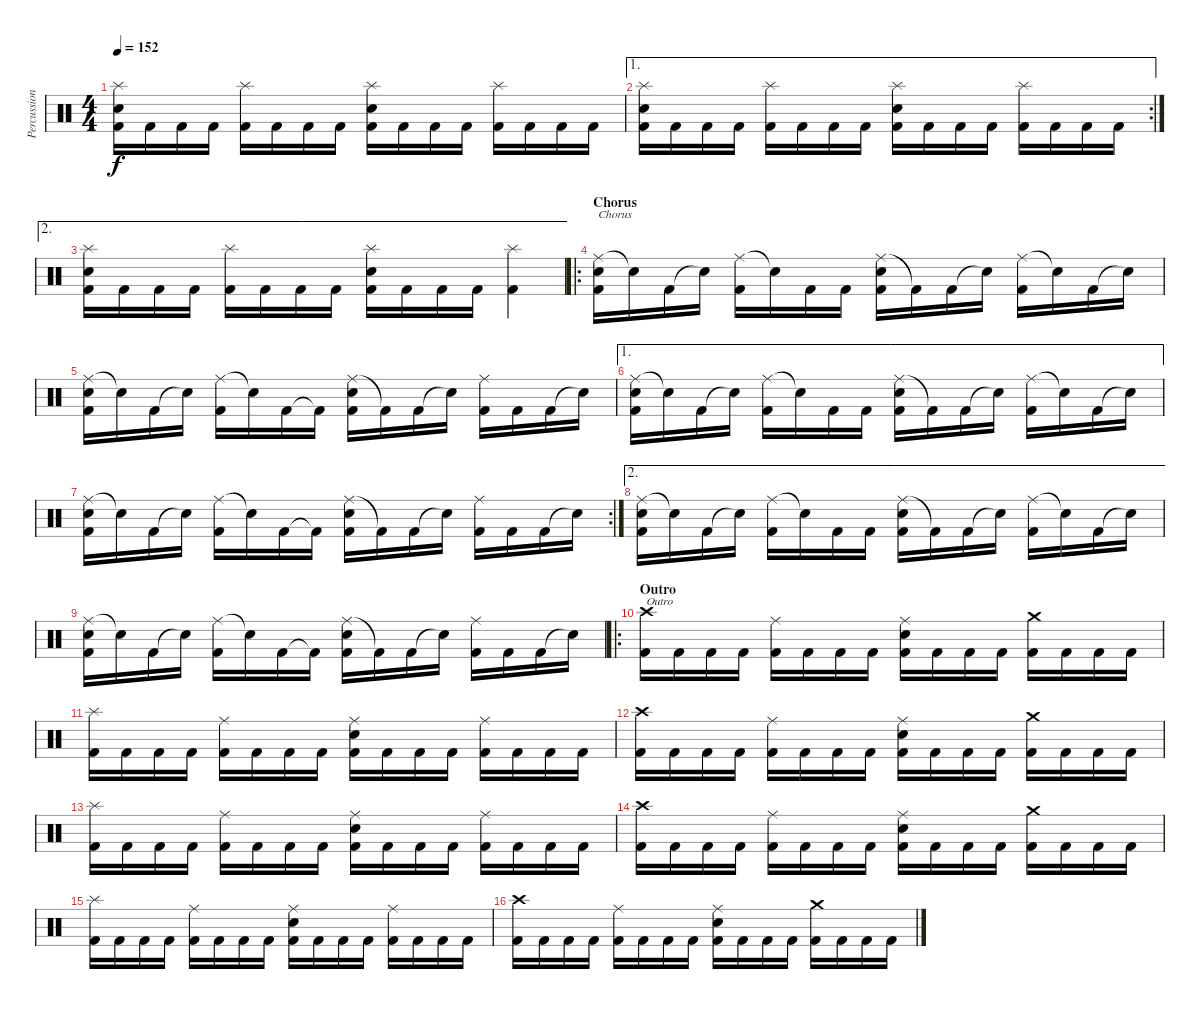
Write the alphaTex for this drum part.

\track ("Percussion" "Percussion") {instrument percussion}
\staff {score}
\articulation defaults
\ts (4 4)
\tempo 152
\clef neutral
\ks c
("Splash (hit)" "Electric Snare (hit)" "Kick (hit) 2").16{dy f} "Kick (hit) 2".16 "Kick (hit) 2".16 "Kick (hit) 2".16 ("Splash (hit)" "Kick (hit) 2").16 "Kick (hit) 2".16 "Kick (hit) 2".16 "Kick (hit) 2".16 ("Splash (hit)" "Electric Snare (hit)" "Kick (hit) 2").16 "Kick (hit) 2".16 "Kick (hit) 2".16 "Kick (hit) 2".16 ("Splash (hit)" "Kick (hit) 2").16 "Kick (hit) 2".16 "Kick (hit) 2".16 "Kick (hit) 2".16 |
\ae 1
\rc 2
("Splash (hit)" "Electric Snare (hit)" "Kick (hit) 2").16 "Kick (hit) 2".16 "Kick (hit) 2".16 "Kick (hit) 2".16 ("Splash (hit)" "Kick (hit) 2").16 "Kick (hit) 2".16 "Kick (hit) 2".16 "Kick (hit) 2".16 ("Splash (hit)" "Electric Snare (hit)" "Kick (hit) 2").16 "Kick (hit) 2".16 "Kick (hit) 2".16 "Kick (hit) 2".16 ("Splash (hit)" "Kick (hit) 2").16 "Kick (hit) 2".16 "Kick (hit) 2".16 "Kick (hit) 2".16 |
\ae 2
("Splash (hit)" "Electric Snare (hit)" "Kick (hit) 2").16 "Kick (hit) 2".16 "Kick (hit) 2".16 "Kick (hit) 2".16 ("Splash (hit)" "Kick (hit) 2").16 "Kick (hit) 2".16 "Kick (hit) 2".16 "Kick (hit) 2".16 ("Splash (hit)" "Electric Snare (hit)" "Kick (hit) 2").16 "Kick (hit) 2".16 "Kick (hit) 2".16 "Kick (hit) 2".16 ("Splash (hit)" "Kick (hit) 2").4 |
\ro
\section ("" "Chorus")
("Ride (middle)" "Electric Snare (hit)" "Kick (hit) 2").16{txt "Chorus"} "Snare (hit)"{t}.16 "Kick (hit) 2".16 "Snare (hit)"{t}.16 ("Ride (middle)" "Kick (hit) 2").16 "Snare (hit)"{t}.16 "Kick (hit) 2".16 "Kick (hit) 2".16 ("Ride (middle)" "Electric Snare (hit)" "Kick (hit) 2").16 "Kick (hit) 2"{t}.16 "Kick (hit) 2".16 "Snare (hit)"{t}.16 ("Ride (middle)" "Kick (hit) 2").16 "Snare (hit)"{t}.16 "Kick (hit) 2".16 "Snare (hit)"{t}.16 |
("Ride (middle)" "Electric Snare (hit)" "Kick (hit) 2").16 "Snare (hit)"{t}.16 "Kick (hit) 2".16 "Snare (hit)"{t}.16 ("Ride (middle)" "Kick (hit) 2").16 "Snare (hit)"{t}.16 "Kick (hit) 2".16 "Kick (hit) 2"{t}.16 ("Ride (middle)" "Electric Snare (hit)" "Kick (hit) 2").16 "Kick (hit) 2"{t}.16 "Kick (hit) 2".16 "Snare (hit)"{t}.16 ("Ride (middle)" "Kick (hit) 2").16 "Kick (hit) 2".16 "Kick (hit) 2".16 "Snare (hit)"{t}.16 |
\ae 1
("Ride (middle)" "Electric Snare (hit)" "Kick (hit) 2").16 "Snare (hit)"{t}.16 "Kick (hit) 2".16 "Snare (hit)"{t}.16 ("Ride (middle)" "Kick (hit) 2").16 "Snare (hit)"{t}.16 "Kick (hit) 2".16 "Kick (hit) 2".16 ("Ride (middle)" "Electric Snare (hit)" "Kick (hit) 2").16 "Kick (hit) 2"{t}.16 "Kick (hit) 2".16 "Snare (hit)"{t}.16 ("Ride (middle)" "Kick (hit) 2").16 "Snare (hit)"{t}.16 "Kick (hit) 2".16 "Snare (hit)"{t}.16 |
\rc 2
("Ride (middle)" "Electric Snare (hit)" "Kick (hit) 2").16 "Snare (hit)"{t}.16 "Kick (hit) 2".16 "Snare (hit)"{t}.16 ("Ride (middle)" "Kick (hit) 2").16 "Snare (hit)"{t}.16 "Kick (hit) 2".16 "Kick (hit) 2"{t}.16 ("Ride (middle)" "Electric Snare (hit)" "Kick (hit) 2").16 "Kick (hit) 2"{t}.16 "Kick (hit) 2".16 "Snare (hit)"{t}.16 ("Ride (middle)" "Kick (hit) 2").16 "Kick (hit) 2".16 "Kick (hit) 2".16 "Snare (hit)"{t}.16 |
\ae 2
("Ride (middle)" "Electric Snare (hit)" "Kick (hit) 2").16 "Snare (hit)"{t}.16 "Kick (hit) 2".16 "Snare (hit)"{t}.16 ("Ride (middle)" "Kick (hit) 2").16 "Snare (hit)"{t}.16 "Kick (hit) 2".16 "Kick (hit) 2".16 ("Ride (middle)" "Electric Snare (hit)" "Kick (hit) 2").16 "Kick (hit) 2"{t}.16 "Kick (hit) 2".16 "Snare (hit)"{t}.16 ("Ride (middle)" "Kick (hit) 2").16 "Snare (hit)"{t}.16 "Kick (hit) 2".16 "Snare (hit)"{t}.16 |
("Ride (middle)" "Electric Snare (hit)" "Kick (hit) 2").16 "Snare (hit)"{t}.16 "Kick (hit) 2".16 "Snare (hit)"{t}.16 ("Ride (middle)" "Kick (hit) 2").16 "Snare (hit)"{t}.16 "Kick (hit) 2".16 "Kick (hit) 2"{t}.16 ("Ride (middle)" "Electric Snare (hit)" "Kick (hit) 2").16 "Kick (hit) 2"{t}.16 "Kick (hit) 2".16 "Snare (hit)"{t}.16 ("Ride (middle)" "Kick (hit) 2").16 "Kick (hit) 2".16 "Kick (hit) 2".16 "Snare (hit)"{t}.16 |
\ro
\section ("" "Outro")
("Crash high (hit)" "Kick (hit) 2").16{txt "Outro"} "Kick (hit) 2".16 "Kick (hit) 2".16 "Kick (hit) 2".16 ("Ride (middle)" "Kick (hit) 2").16 "Kick (hit) 2".16 "Kick (hit) 2".16 "Kick (hit) 2".16 ("Ride (middle)" "Electric Snare (hit)" "Kick (hit) 2").16 "Kick (hit) 2".16 "Kick (hit) 2".16 "Kick (hit) 2".16 ("Crash medium (hit)" "Kick (hit) 2").16 "Kick (hit) 2".16 "Kick (hit) 2".16 "Kick (hit) 2".16 |
("Splash (hit)" "Kick (hit) 2").16 "Kick (hit) 2".16 "Kick (hit) 2".16 "Kick (hit) 2".16 ("Ride (middle)" "Kick (hit) 2").16 "Kick (hit) 2".16 "Kick (hit) 2".16 "Kick (hit) 2".16 ("Ride (middle)" "Electric Snare (hit)" "Kick (hit) 2").16 "Kick (hit) 2".16 "Kick (hit) 2".16 "Kick (hit) 2".16 ("Ride (middle)" "Kick (hit) 2").16 "Kick (hit) 2".16 "Kick (hit) 2".16 "Kick (hit) 2".16 |
("Crash high (hit)" "Kick (hit) 2").16 "Kick (hit) 2".16 "Kick (hit) 2".16 "Kick (hit) 2".16 ("Ride (middle)" "Kick (hit) 2").16 "Kick (hit) 2".16 "Kick (hit) 2".16 "Kick (hit) 2".16 ("Ride (middle)" "Electric Snare (hit)" "Kick (hit) 2").16 "Kick (hit) 2".16 "Kick (hit) 2".16 "Kick (hit) 2".16 ("Crash medium (hit)" "Kick (hit) 2").16 "Kick (hit) 2".16 "Kick (hit) 2".16 "Kick (hit) 2".16 |
("Splash (hit)" "Kick (hit) 2").16 "Kick (hit) 2".16 "Kick (hit) 2".16 "Kick (hit) 2".16 ("Ride (middle)" "Kick (hit) 2").16 "Kick (hit) 2".16 "Kick (hit) 2".16 "Kick (hit) 2".16 ("Ride (middle)" "Electric Snare (hit)" "Kick (hit) 2").16 "Kick (hit) 2".16 "Kick (hit) 2".16 "Kick (hit) 2".16 ("Ride (middle)" "Kick (hit) 2").16 "Kick (hit) 2".16 "Kick (hit) 2".16 "Kick (hit) 2".16 |
("Crash high (hit)" "Kick (hit) 2").16 "Kick (hit) 2".16 "Kick (hit) 2".16 "Kick (hit) 2".16 ("Ride (middle)" "Kick (hit) 2").16 "Kick (hit) 2".16 "Kick (hit) 2".16 "Kick (hit) 2".16 ("Ride (middle)" "Electric Snare (hit)" "Kick (hit) 2").16 "Kick (hit) 2".16 "Kick (hit) 2".16 "Kick (hit) 2".16 ("Crash medium (hit)" "Kick (hit) 2").16 "Kick (hit) 2".16 "Kick (hit) 2".16 "Kick (hit) 2".16 |
("Splash (hit)" "Kick (hit) 2").16 "Kick (hit) 2".16 "Kick (hit) 2".16 "Kick (hit) 2".16 ("Ride (middle)" "Kick (hit) 2").16 "Kick (hit) 2".16 "Kick (hit) 2".16 "Kick (hit) 2".16 ("Ride (middle)" "Electric Snare (hit)" "Kick (hit) 2").16 "Kick (hit) 2".16 "Kick (hit) 2".16 "Kick (hit) 2".16 ("Ride (middle)" "Kick (hit) 2").16 "Kick (hit) 2".16 "Kick (hit) 2".16 "Kick (hit) 2".16 |
("Crash high (hit)" "Kick (hit) 2").16 "Kick (hit) 2".16 "Kick (hit) 2".16 "Kick (hit) 2".16 ("Ride (middle)" "Kick (hit) 2").16 "Kick (hit) 2".16 "Kick (hit) 2".16 "Kick (hit) 2".16 ("Ride (middle)" "Electric Snare (hit)" "Kick (hit) 2").16 "Kick (hit) 2".16 "Kick (hit) 2".16 "Kick (hit) 2".16 ("Crash medium (hit)" "Kick (hit) 2").16 "Kick (hit) 2".16 "Kick (hit) 2".16 "Kick (hit) 2".16
